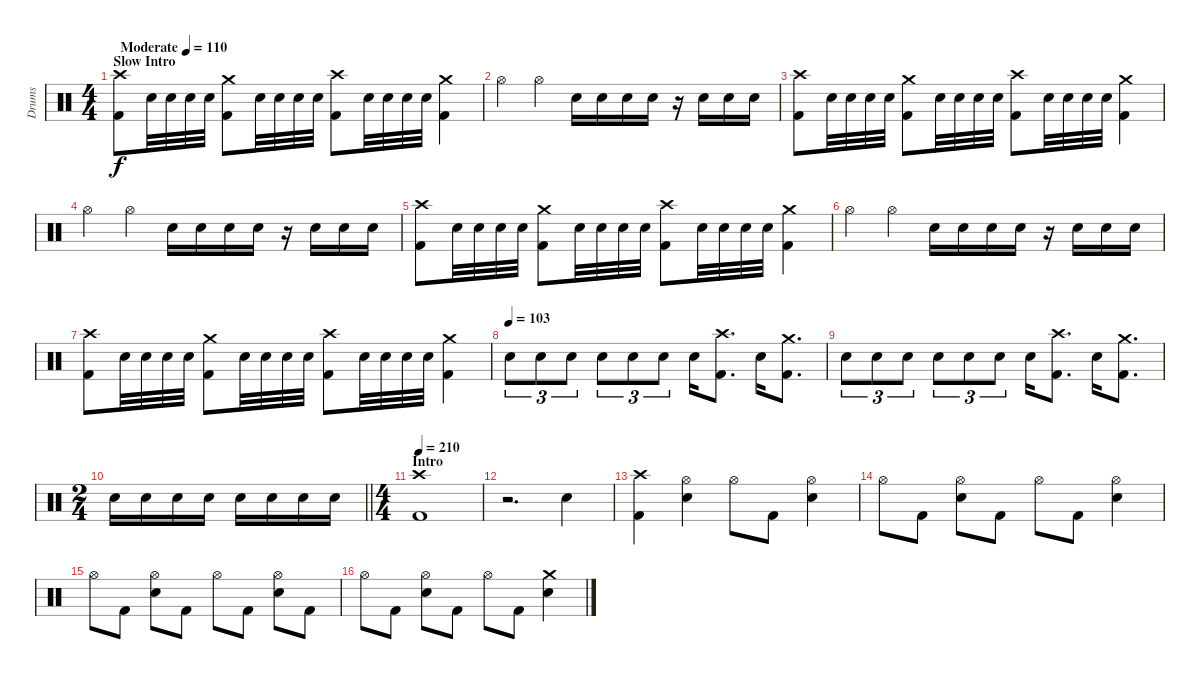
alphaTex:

\track ("Drums" "Drums") {instrument percussion}
\staff {score}
\articulation defaults
\ts (4 4)
\section ("" "Slow Intro")
\tempo (110 "Moderate")
\clef neutral
\ks c
("Crash high (hit)" "Kick (hit) 2").8{dy f} "Snare (hit) 2".32 "Snare (hit) 2".32 "Snare (hit) 2".32 "Snare (hit) 2".32 ("Crash medium (hit)" "Kick (hit) 2").8 "Snare (hit) 2".32 "Snare (hit) 2".32 "Snare (hit) 2".32 "Snare (hit) 2".32 ("Crash high (hit)" "Kick (hit) 2").8 "Snare (hit) 2".32 "Snare (hit) 2".32 "Snare (hit) 2".32 "Snare (hit) 2".32 ("Crash medium (hit)" "Kick (hit) 2").4 |
"Hi-Hat (open)".4 "Hi-Hat (open)".4 "Snare (hit) 2".16 "Snare (hit) 2".16 "Snare (hit) 2".16 "Snare (hit) 2".16 r.16 "Snare (hit) 2".16 "Snare (hit) 2".16 "Snare (hit) 2".16 |
("Crash high (hit)" "Kick (hit) 2").8 "Snare (hit) 2".32 "Snare (hit) 2".32 "Snare (hit) 2".32 "Snare (hit) 2".32 ("Crash medium (hit)" "Kick (hit) 2").8 "Snare (hit) 2".32 "Snare (hit) 2".32 "Snare (hit) 2".32 "Snare (hit) 2".32 ("Crash high (hit)" "Kick (hit) 2").8 "Snare (hit) 2".32 "Snare (hit) 2".32 "Snare (hit) 2".32 "Snare (hit) 2".32 ("Crash medium (hit)" "Kick (hit) 2").4 |
"Hi-Hat (open)".4 "Hi-Hat (open)".4 "Snare (hit) 2".16 "Snare (hit) 2".16 "Snare (hit) 2".16 "Snare (hit) 2".16 r.16 "Snare (hit) 2".16 "Snare (hit) 2".16 "Snare (hit) 2".16 |
("Crash high (hit)" "Kick (hit) 2").8 "Snare (hit) 2".32 "Snare (hit) 2".32 "Snare (hit) 2".32 "Snare (hit) 2".32 ("Crash medium (hit)" "Kick (hit) 2").8 "Snare (hit) 2".32 "Snare (hit) 2".32 "Snare (hit) 2".32 "Snare (hit) 2".32 ("Crash high (hit)" "Kick (hit) 2").8 "Snare (hit) 2".32 "Snare (hit) 2".32 "Snare (hit) 2".32 "Snare (hit) 2".32 ("Crash medium (hit)" "Kick (hit) 2").4 |
"Hi-Hat (open)".4 "Hi-Hat (open)".4 "Snare (hit) 2".16 "Snare (hit) 2".16 "Snare (hit) 2".16 "Snare (hit) 2".16 r.16 "Snare (hit) 2".16 "Snare (hit) 2".16 "Snare (hit) 2".16 |
("Crash high (hit)" "Kick (hit) 2").8 "Snare (hit) 2".32 "Snare (hit) 2".32 "Snare (hit) 2".32 "Snare (hit) 2".32 ("Crash medium (hit)" "Kick (hit) 2").8 "Snare (hit) 2".32 "Snare (hit) 2".32 "Snare (hit) 2".32 "Snare (hit) 2".32 ("Crash high (hit)" "Kick (hit) 2").8 "Snare (hit) 2".32 "Snare (hit) 2".32 "Snare (hit) 2".32 "Snare (hit) 2".32 ("Crash medium (hit)" "Kick (hit) 2").4 |
\tempo (103)
"Snare (hit) 2".8{tu (3 2)} "Snare (hit) 2".8{tu (3 2)} "Snare (hit) 2".8{tu (3 2)} "Snare (hit) 2".8{tu (3 2)} "Snare (hit) 2".8{tu (3 2)} "Snare (hit) 2".8{tu (3 2)} "Snare (hit) 2".16 ("Crash high (hit)" "Kick (hit) 2").8{d} "Snare (hit) 2".16 ("Crash medium (hit)" "Kick (hit) 2").8{d} |
"Snare (hit) 2".8{tu (3 2)} "Snare (hit) 2".8{tu (3 2)} "Snare (hit) 2".8{tu (3 2)} "Snare (hit) 2".8{tu (3 2)} "Snare (hit) 2".8{tu (3 2)} "Snare (hit) 2".8{tu (3 2)} "Snare (hit) 2".16 ("Crash high (hit)" "Kick (hit) 2").8{d} "Snare (hit) 2".16 ("Crash medium (hit)" "Kick (hit) 2").8{d} |
\ts (2 4)
\barLineRight lightlight "Snare (hit) 2".16 "Snare (hit) 2".16 "Snare (hit) 2".16 "Snare (hit) 2".16 "Snare (hit) 2".16 "Snare (hit) 2".16 "Snare (hit) 2".16 "Snare (hit) 2".16
|
\ts (4 4)
\section ("" "Intro")
\tempo 210
("Crash high (hit)" "Kick (hit) 2").1 |
r.2{d} "Snare (hit) 2".4 |
("Crash high (hit)" "Kick (hit) 2").4 ("Hi-Hat (open)" "Snare (hit) 2").4 "Hi-Hat (open)".8 "Kick (hit) 2".8 ("Hi-Hat (open)" "Snare (hit) 2").4 |
"Hi-Hat (open)".8 "Kick (hit) 2".8 ("Hi-Hat (open)" "Snare (hit) 2").8 "Kick (hit) 2".8 "Hi-Hat (open)".8 "Kick (hit) 2".8 ("Hi-Hat (open)" "Snare (hit) 2").4 |
"Hi-Hat (open)".8 "Kick (hit) 2".8 ("Hi-Hat (open)" "Snare (hit) 2").8 "Kick (hit) 2".8 "Hi-Hat (open)".8 "Kick (hit) 2".8 ("Hi-Hat (open)" "Snare (hit) 2").8 "Kick (hit) 2".8 |
"Hi-Hat (open)".8 "Kick (hit) 2".8 ("Hi-Hat (open)" "Snare (hit) 2").8 "Kick (hit) 2".8 "Hi-Hat (open)".8 "Kick (hit) 2".8 ("Crash medium (hit)" "Snare (hit) 2").4
